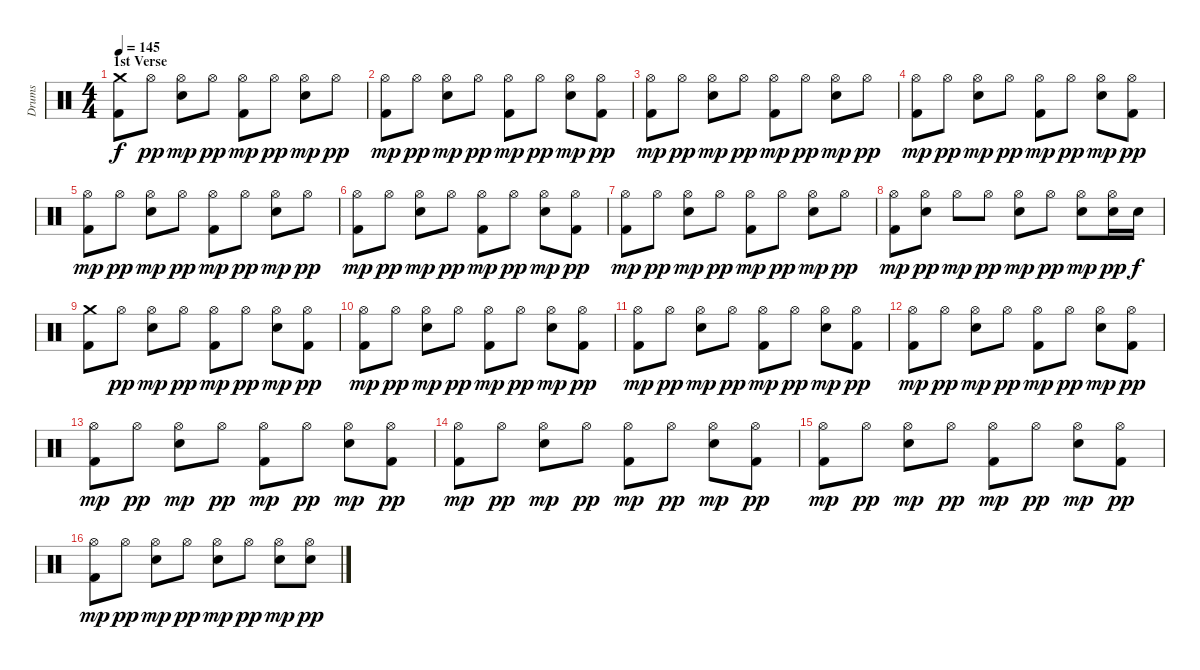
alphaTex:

\track ("Drums" "Drums") {instrument percussion}
\staff {score}
\articulation defaults
\ts (4 4)
\section ("" "1st Verse")
\tempo 145
\clef neutral
\ks c
("Crash medium (hit)" "Kick (hit) 2").8{dy f} "Hi-Hat (open)".8{dy pp} ("Hi-Hat (open)" "Snare (hit) 2").8{dy mp} "Hi-Hat (open)".8{dy pp} ("Hi-Hat (open)" "Kick (hit) 2").8{dy mp} "Hi-Hat (open)".8{dy pp} ("Hi-Hat (open)" "Snare (hit) 2").8{dy mp} "Hi-Hat (open)".8{dy pp} |
("Hi-Hat (open)" "Kick (hit) 2").8{dy mp} "Hi-Hat (open)".8{dy pp} ("Hi-Hat (open)" "Snare (hit) 2").8{dy mp} "Hi-Hat (open)".8{dy pp} ("Hi-Hat (open)" "Kick (hit) 2").8{dy mp} "Hi-Hat (open)".8{dy pp} ("Hi-Hat (open)" "Snare (hit) 2").8{dy mp} ("Hi-Hat (open)" "Kick (hit) 2").8{dy pp} |
("Hi-Hat (open)" "Kick (hit) 2").8{dy mp} "Hi-Hat (open)".8{dy pp} ("Hi-Hat (open)" "Snare (hit) 2").8{dy mp} "Hi-Hat (open)".8{dy pp} ("Hi-Hat (open)" "Kick (hit) 2").8{dy mp} "Hi-Hat (open)".8{dy pp} ("Hi-Hat (open)" "Snare (hit) 2").8{dy mp} "Hi-Hat (open)".8{dy pp} |
("Hi-Hat (open)" "Kick (hit) 2").8{dy mp} "Hi-Hat (open)".8{dy pp} ("Hi-Hat (open)" "Snare (hit) 2").8{dy mp} "Hi-Hat (open)".8{dy pp} ("Hi-Hat (open)" "Kick (hit) 2").8{dy mp} "Hi-Hat (open)".8{dy pp} ("Hi-Hat (open)" "Snare (hit) 2").8{dy mp} ("Hi-Hat (open)" "Kick (hit) 2").8{dy pp} |
("Hi-Hat (open)" "Kick (hit) 2").8{dy mp} "Hi-Hat (open)".8{dy pp} ("Hi-Hat (open)" "Snare (hit) 2").8{dy mp} "Hi-Hat (open)".8{dy pp} ("Hi-Hat (open)" "Kick (hit) 2").8{dy mp} "Hi-Hat (open)".8{dy pp} ("Hi-Hat (open)" "Snare (hit) 2").8{dy mp} "Hi-Hat (open)".8{dy pp} |
("Hi-Hat (open)" "Kick (hit) 2").8{dy mp} "Hi-Hat (open)".8{dy pp} ("Hi-Hat (open)" "Snare (hit) 2").8{dy mp} "Hi-Hat (open)".8{dy pp} ("Hi-Hat (open)" "Kick (hit) 2").8{dy mp} "Hi-Hat (open)".8{dy pp} ("Hi-Hat (open)" "Snare (hit) 2").8{dy mp} ("Hi-Hat (open)" "Kick (hit) 2").8{dy pp} |
("Hi-Hat (open)" "Kick (hit) 2").8{dy mp} "Hi-Hat (open)".8{dy pp} ("Hi-Hat (open)" "Snare (hit) 2").8{dy mp} "Hi-Hat (open)".8{dy pp} ("Hi-Hat (open)" "Kick (hit) 2").8{dy mp} "Hi-Hat (open)".8{dy pp} ("Hi-Hat (open)" "Snare (hit) 2").8{dy mp} "Hi-Hat (open)".8{dy pp} |
("Hi-Hat (open)" "Kick (hit) 2").8{dy mp} ("Hi-Hat (open)" "Snare (hit) 2").8{dy pp} "Hi-Hat (open)".8{dy mp} "Hi-Hat (open)".8{dy pp} ("Hi-Hat (open)" "Snare (hit) 2").8{dy mp} "Hi-Hat (open)".8{dy pp} ("Hi-Hat (open)" "Snare (hit) 2").8{dy mp} ("Hi-Hat (open)" "Snare (hit) 2").16{dy pp} "Snare (hit) 2".16{dy f} |
("Crash medium (hit)" "Kick (hit) 2").8 "Hi-Hat (open)".8{dy pp} ("Hi-Hat (open)" "Snare (hit) 2").8{dy mp} "Hi-Hat (open)".8{dy pp} ("Hi-Hat (open)" "Kick (hit) 2").8{dy mp} "Hi-Hat (open)".8{dy pp} ("Hi-Hat (open)" "Snare (hit) 2").8{dy mp} ("Hi-Hat (open)" "Kick (hit) 2").8{dy pp} |
("Hi-Hat (open)" "Kick (hit) 2").8{dy mp} "Hi-Hat (open)".8{dy pp} ("Hi-Hat (open)" "Snare (hit) 2").8{dy mp} "Hi-Hat (open)".8{dy pp} ("Hi-Hat (open)" "Kick (hit) 2").8{dy mp} "Hi-Hat (open)".8{dy pp} ("Hi-Hat (open)" "Snare (hit) 2").8{dy mp} ("Hi-Hat (open)" "Kick (hit) 2").8{dy pp} |
("Hi-Hat (open)" "Kick (hit) 2").8{dy mp} "Hi-Hat (open)".8{dy pp} ("Hi-Hat (open)" "Snare (hit) 2").8{dy mp} "Hi-Hat (open)".8{dy pp} ("Hi-Hat (open)" "Kick (hit) 2").8{dy mp} "Hi-Hat (open)".8{dy pp} ("Hi-Hat (open)" "Snare (hit) 2").8{dy mp} ("Hi-Hat (open)" "Kick (hit) 2").8{dy pp} |
("Hi-Hat (open)" "Kick (hit) 2").8{dy mp} "Hi-Hat (open)".8{dy pp} ("Hi-Hat (open)" "Snare (hit) 2").8{dy mp} "Hi-Hat (open)".8{dy pp} ("Hi-Hat (open)" "Kick (hit) 2").8{dy mp} "Hi-Hat (open)".8{dy pp} ("Hi-Hat (open)" "Snare (hit) 2").8{dy mp} ("Hi-Hat (open)" "Kick (hit) 2").8{dy pp} |
("Hi-Hat (open)" "Kick (hit) 2").8{dy mp} "Hi-Hat (open)".8{dy pp} ("Hi-Hat (open)" "Snare (hit) 2").8{dy mp} "Hi-Hat (open)".8{dy pp} ("Hi-Hat (open)" "Kick (hit) 2").8{dy mp} "Hi-Hat (open)".8{dy pp} ("Hi-Hat (open)" "Snare (hit) 2").8{dy mp} ("Hi-Hat (open)" "Kick (hit) 2").8{dy pp} |
("Hi-Hat (open)" "Kick (hit) 2").8{dy mp} "Hi-Hat (open)".8{dy pp} ("Hi-Hat (open)" "Snare (hit) 2").8{dy mp} "Hi-Hat (open)".8{dy pp} ("Hi-Hat (open)" "Kick (hit) 2").8{dy mp} "Hi-Hat (open)".8{dy pp} ("Hi-Hat (open)" "Snare (hit) 2").8{dy mp} ("Hi-Hat (open)" "Kick (hit) 2").8{dy pp} |
("Hi-Hat (open)" "Kick (hit) 2").8{dy mp} "Hi-Hat (open)".8{dy pp} ("Hi-Hat (open)" "Snare (hit) 2").8{dy mp} "Hi-Hat (open)".8{dy pp} ("Hi-Hat (open)" "Kick (hit) 2").8{dy mp} "Hi-Hat (open)".8{dy pp} ("Hi-Hat (open)" "Snare (hit) 2").8{dy mp} ("Hi-Hat (open)" "Kick (hit) 2").8{dy pp} |
("Hi-Hat (open)" "Kick (hit) 2").8{dy mp} "Hi-Hat (open)".8{dy pp} ("Hi-Hat (open)" "Snare (hit) 2").8{dy mp} "Hi-Hat (open)".8{dy pp} ("Hi-Hat (open)" "Snare (hit) 2").8{dy mp} "Hi-Hat (open)".8{dy pp} ("Hi-Hat (open)" "Snare (hit) 2").8{dy mp} ("Hi-Hat (open)" "Snare (hit) 2").8{dy pp}
